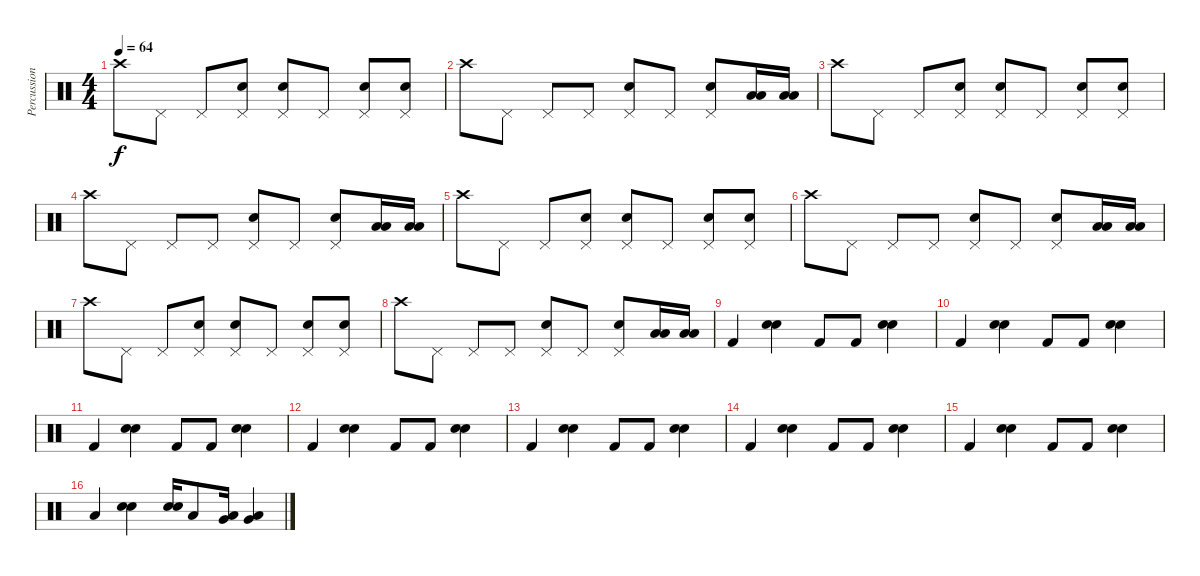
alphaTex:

\track ("Percussion" "Percussion") {instrument percussion}
\staff {score}
\articulation defaults
\ts (4 4)
\tempo 64
\clef neutral
\ks c "Crash high (hit)".8{dy f} "Pedal Hi-Hat (hit)".8 "Pedal Hi-Hat (hit)".8
("Pedal Hi-Hat (hit)" "Electric Snare (hit)").8 ("Pedal Hi-Hat (hit)" "Electric Snare (hit)").8 "Pedal Hi-Hat (hit)".8 ("Pedal Hi-Hat (hit)" "Electric Snare (hit)").8 ("Pedal Hi-Hat (hit)" "Electric Snare (hit)").8 |
"Crash high (hit)".8 "Pedal Hi-Hat (hit)".8 "Pedal Hi-Hat (hit)".8 "Pedal Hi-Hat (hit)".8 ("Pedal Hi-Hat (hit)" "Electric Snare (hit)").8 "Pedal Hi-Hat (hit)".8 ("Pedal Hi-Hat (hit)" "Electric Snare (hit)").8 ("Low Tom (hit)" "Low Tom (hit)").16 ("Low Tom (hit)" "Low Tom (hit)").16 |
"Crash high (hit)".8 "Pedal Hi-Hat (hit)".8 "Pedal Hi-Hat (hit)".8 ("Pedal Hi-Hat (hit)" "Electric Snare (hit)").8 ("Pedal Hi-Hat (hit)" "Electric Snare (hit)").8 "Pedal Hi-Hat (hit)".8 ("Pedal Hi-Hat (hit)" "Electric Snare (hit)").8 ("Pedal Hi-Hat (hit)" "Electric Snare (hit)").8 |
"Crash high (hit)".8 "Pedal Hi-Hat (hit)".8 "Pedal Hi-Hat (hit)".8 "Pedal Hi-Hat (hit)".8 ("Pedal Hi-Hat (hit)" "Electric Snare (hit)").8 "Pedal Hi-Hat (hit)".8 ("Pedal Hi-Hat (hit)" "Electric Snare (hit)").8 ("Low Tom (hit)" "Low Tom (hit)").16 ("Low Tom (hit)" "Low Tom (hit)").16 |
"Crash high (hit)".8 "Pedal Hi-Hat (hit)".8 "Pedal Hi-Hat (hit)".8 ("Pedal Hi-Hat (hit)" "Electric Snare (hit)").8 ("Pedal Hi-Hat (hit)" "Electric Snare (hit)").8 "Pedal Hi-Hat (hit)".8 ("Pedal Hi-Hat (hit)" "Electric Snare (hit)").8 ("Pedal Hi-Hat (hit)" "Electric Snare (hit)").8 |
"Crash high (hit)".8 "Pedal Hi-Hat (hit)".8 "Pedal Hi-Hat (hit)".8 "Pedal Hi-Hat (hit)".8 ("Pedal Hi-Hat (hit)" "Electric Snare (hit)").8 "Pedal Hi-Hat (hit)".8 ("Pedal Hi-Hat (hit)" "Electric Snare (hit)").8 ("Low Tom (hit)" "Low Tom (hit)").16 ("Low Tom (hit)" "Low Tom (hit)").16 |
"Crash high (hit)".8 "Pedal Hi-Hat (hit)".8 "Pedal Hi-Hat (hit)".8 ("Pedal Hi-Hat (hit)" "Electric Snare (hit)").8 ("Pedal Hi-Hat (hit)" "Electric Snare (hit)").8 "Pedal Hi-Hat (hit)".8 ("Pedal Hi-Hat (hit)" "Electric Snare (hit)").8 ("Pedal Hi-Hat (hit)" "Electric Snare (hit)").8 |
"Crash high (hit)".8 "Pedal Hi-Hat (hit)".8 "Pedal Hi-Hat (hit)".8 "Pedal Hi-Hat (hit)".8 ("Pedal Hi-Hat (hit)" "Electric Snare (hit)").8 "Pedal Hi-Hat (hit)".8 ("Pedal Hi-Hat (hit)" "Electric Snare (hit)").8 ("Low Tom (hit)" "Low Tom (hit)").16 ("Low Tom (hit)" "Low Tom (hit)").16 |
"Kick (hit) 2".4 ("Snare (hit) 2" "Electric Snare (hit)").4 "Kick (hit) 2".8 "Kick (hit) 2".8 ("Snare (hit) 2" "Electric Snare (hit)").4 |
"Kick (hit) 2".4 ("Snare (hit) 2" "Electric Snare (hit)").4 "Kick (hit) 2".8 "Kick (hit) 2".8 ("Snare (hit) 2" "Electric Snare (hit)").4 |
"Kick (hit) 2".4 ("Snare (hit) 2" "Electric Snare (hit)").4 "Kick (hit) 2".8 "Kick (hit) 2".8 ("Snare (hit) 2" "Electric Snare (hit)").4 |
"Kick (hit) 2".4 ("Snare (hit) 2" "Electric Snare (hit)").4 "Kick (hit) 2".8 "Kick (hit) 2".8 ("Snare (hit) 2" "Electric Snare (hit)").4 |
"Kick (hit) 2".4 ("Snare (hit) 2" "Electric Snare (hit)").4 "Kick (hit) 2".8 "Kick (hit) 2".8 ("Snare (hit) 2" "Electric Snare (hit)").4 |
"Kick (hit) 2".4 ("Snare (hit) 2" "Electric Snare (hit)").4 "Kick (hit) 2".8 "Kick (hit) 2".8 ("Snare (hit) 2" "Electric Snare (hit)").4 |
"Kick (hit) 2".4 ("Snare (hit) 2" "Electric Snare (hit)").4 "Kick (hit) 2".8 "Kick (hit) 2".8 ("Snare (hit) 2" "Electric Snare (hit)").4 |
"Low Tom (hit)".4 ("Snare (hit) 2" "Electric Snare (hit)").4 ("Electric Snare (hit)" "Snare (hit) 2").16 "Low Tom (hit)".8 ("Low Tom (hit)" "Very Low Tom (hit)").16 ("Low Tom (hit)" "Very Low Tom (hit)").4
